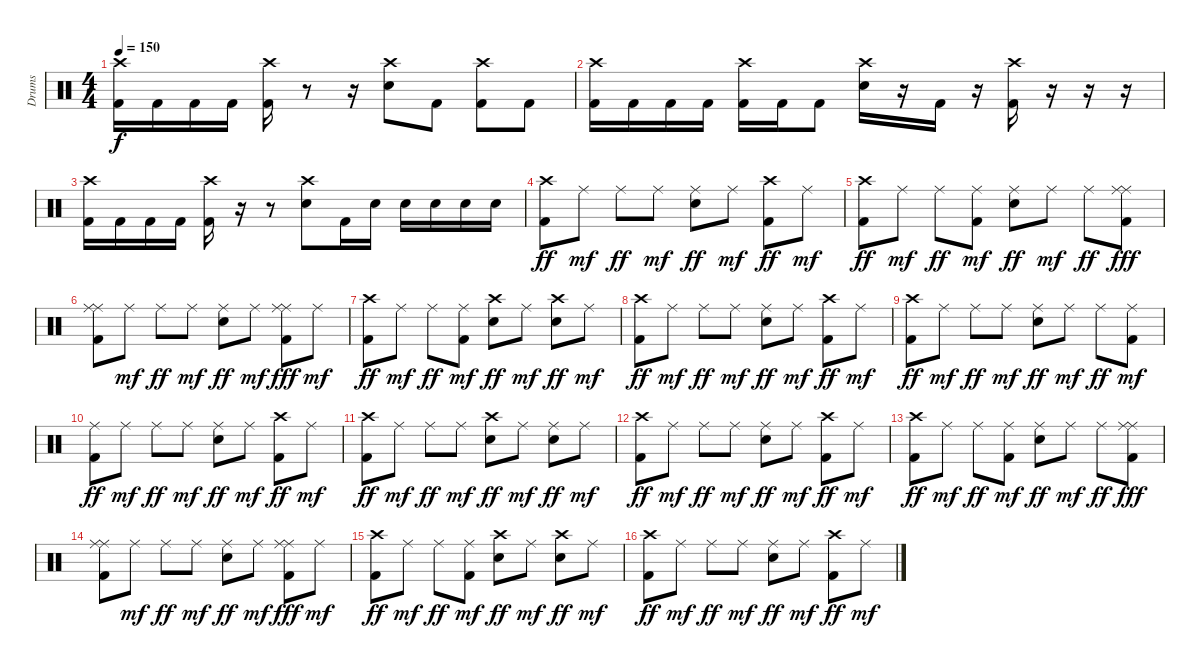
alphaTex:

\track ("Drums" "Drums") {instrument percussion}
\staff {score}
\articulation defaults
\ts (4 4)
\tempo 150
\clef neutral
\ks c
("Crash high (hit)" "Kick (hit) 2").16{dy f} "Kick (hit) 2".16 "Kick (hit) 2".16 "Kick (hit) 2".16 ("Crash high (hit)" "Kick (hit) 2").16 r.8 r.16 ("Crash high (hit)" "Electric Snare (hit)").8 "Kick (hit) 2".8 ("Crash high (hit)" "Kick (hit) 2").8 "Kick (hit) 2".8 |
("Crash high (hit)" "Kick (hit) 2").16 "Kick (hit) 2".16 "Kick (hit) 2".16 "Kick (hit) 2".16 ("Crash high (hit)" "Kick (hit) 2").16 "Kick (hit) 2".16 "Kick (hit) 2".8 ("Crash high (hit)" "Electric Snare (hit)").16 r.16 "Kick (hit) 2".16 r.16 ("Crash high (hit)" "Kick (hit) 2").16 r.16 r.16 r.16 |
("Crash high (hit)" "Kick (hit) 2").16 "Kick (hit) 2".16 "Kick (hit) 2".16 "Kick (hit) 2".16 ("Crash high (hit)" "Kick (hit) 2").16 r.16 r.8 ("Crash high (hit)" "Electric Snare (hit)").8 "Kick (hit) 2".16 "Electric Snare (hit)".16 "Electric Snare (hit)".16 "Electric Snare (hit)".16 "Electric Snare (hit)".16 "Electric Snare (hit)".16 |
("Crash high (hit)" "Kick (hit) 2").8{dy ff} "Ride (middle)".8{dy mf} "Ride (middle)".8{dy ff} "Ride (middle)".8{dy mf} ("Ride (middle)" "Electric Snare (hit)").8{dy ff} "Ride (middle)".8{dy mf} ("Crash high (hit)" "Kick (hit) 2").8{dy ff} "Ride (middle)".8{dy mf} |
("Crash high (hit)" "Kick (hit) 2").8{dy ff} "Ride (middle)".8{dy mf} "Ride (middle)".8{dy ff} ("Ride (middle)" "Kick (hit) 2").8{dy mf} ("Ride (middle)" "Electric Snare (hit)").8{dy ff} "Ride (middle)".8{dy mf} "Ride (middle)".8{dy ff} ("Ride (middle)" "Ride (middle)" "Kick (hit) 2").8{dy fff} |
("Ride (middle)" "Ride (middle)" "Kick (hit) 2").8 "Ride (middle)".8{dy mf} "Ride (middle)".8{dy ff} "Ride (middle)".8{dy mf} ("Ride (middle)" "Electric Snare (hit)").8{dy ff} "Ride (middle)".8{dy mf} ("Ride (middle)" "Ride (middle)" "Kick (hit) 2").8{dy fff} "Ride (middle)".8{dy mf} |
("Crash high (hit)" "Kick (hit) 2").8{dy ff} "Ride (middle)".8{dy mf} "Ride (middle)".8{dy ff} ("Ride (middle)" "Kick (hit) 2").8{dy mf} ("Crash high (hit)" "Electric Snare (hit)").8{dy ff} "Ride (middle)".8{dy mf} ("Crash high (hit)" "Electric Snare (hit)").8{dy ff} "Ride (middle)".8{dy mf} |
("Crash high (hit)" "Kick (hit) 2").8{dy ff} "Ride (middle)".8{dy mf} "Ride (middle)".8{dy ff} "Ride (middle)".8{dy mf} ("Ride (middle)" "Electric Snare (hit)").8{dy ff} "Ride (middle)".8{dy mf} ("Crash high (hit)" "Kick (hit) 2").8{dy ff} "Ride (middle)".8{dy mf} |
("Crash high (hit)" "Kick (hit) 2").8{dy ff} "Ride (middle)".8{dy mf} "Ride (middle)".8{dy ff} "Ride (middle)".8{dy mf} ("Ride (middle)" "Electric Snare (hit)").8{dy ff} "Ride (middle)".8{dy mf} "Ride (middle)".8{dy ff} ("Ride (middle)" "Kick (hit) 2").8{dy mf} |
("Ride (middle)" "Kick (hit) 2").8{dy ff} "Ride (middle)".8{dy mf} "Ride (middle)".8{dy ff} "Ride (middle)".8{dy mf} ("Ride (middle)" "Electric Snare (hit)").8{dy ff} "Ride (middle)".8{dy mf} ("Crash high (hit)" "Kick (hit) 2").8{dy ff} "Ride (middle)".8{dy mf} |
("Crash high (hit)" "Kick (hit) 2").8{dy ff} "Ride (middle)".8{dy mf} "Ride (middle)".8{dy ff} "Ride (middle)".8{dy mf} ("Crash high (hit)" "Electric Snare (hit)").8{dy ff} "Ride (middle)".8{dy mf} ("Ride (middle)" "Electric Snare (hit)").8{dy ff} "Ride (middle)".8{dy mf} |
("Crash high (hit)" "Kick (hit) 2").8{dy ff} "Ride (middle)".8{dy mf} "Ride (middle)".8{dy ff} "Ride (middle)".8{dy mf} ("Ride (middle)" "Electric Snare (hit)").8{dy ff} "Ride (middle)".8{dy mf} ("Crash high (hit)" "Kick (hit) 2").8{dy ff} "Ride (middle)".8{dy mf} |
("Crash high (hit)" "Kick (hit) 2").8{dy ff} "Ride (middle)".8{dy mf} "Ride (middle)".8{dy ff} ("Ride (middle)" "Kick (hit) 2").8{dy mf} ("Ride (middle)" "Electric Snare (hit)").8{dy ff} "Ride (middle)".8{dy mf} "Ride (middle)".8{dy ff} ("Ride (middle)" "Ride (middle)" "Kick (hit) 2").8{dy fff} |
("Ride (middle)" "Ride (middle)" "Kick (hit) 2").8 "Ride (middle)".8{dy mf} "Ride (middle)".8{dy ff} "Ride (middle)".8{dy mf} ("Ride (middle)" "Electric Snare (hit)").8{dy ff} "Ride (middle)".8{dy mf} ("Ride (middle)" "Ride (middle)" "Kick (hit) 2").8{dy fff} "Ride (middle)".8{dy mf} |
("Crash high (hit)" "Kick (hit) 2").8{dy ff} "Ride (middle)".8{dy mf} "Ride (middle)".8{dy ff} ("Ride (middle)" "Kick (hit) 2").8{dy mf} ("Crash high (hit)" "Electric Snare (hit)").8{dy ff} "Ride (middle)".8{dy mf} ("Crash high (hit)" "Electric Snare (hit)").8{dy ff} "Ride (middle)".8{dy mf} |
("Crash high (hit)" "Kick (hit) 2").8{dy ff} "Ride (middle)".8{dy mf} "Ride (middle)".8{dy ff} "Ride (middle)".8{dy mf} ("Ride (middle)" "Electric Snare (hit)").8{dy ff} "Ride (middle)".8{dy mf} ("Crash high (hit)" "Kick (hit) 2").8{dy ff} "Ride (middle)".8{dy mf}
